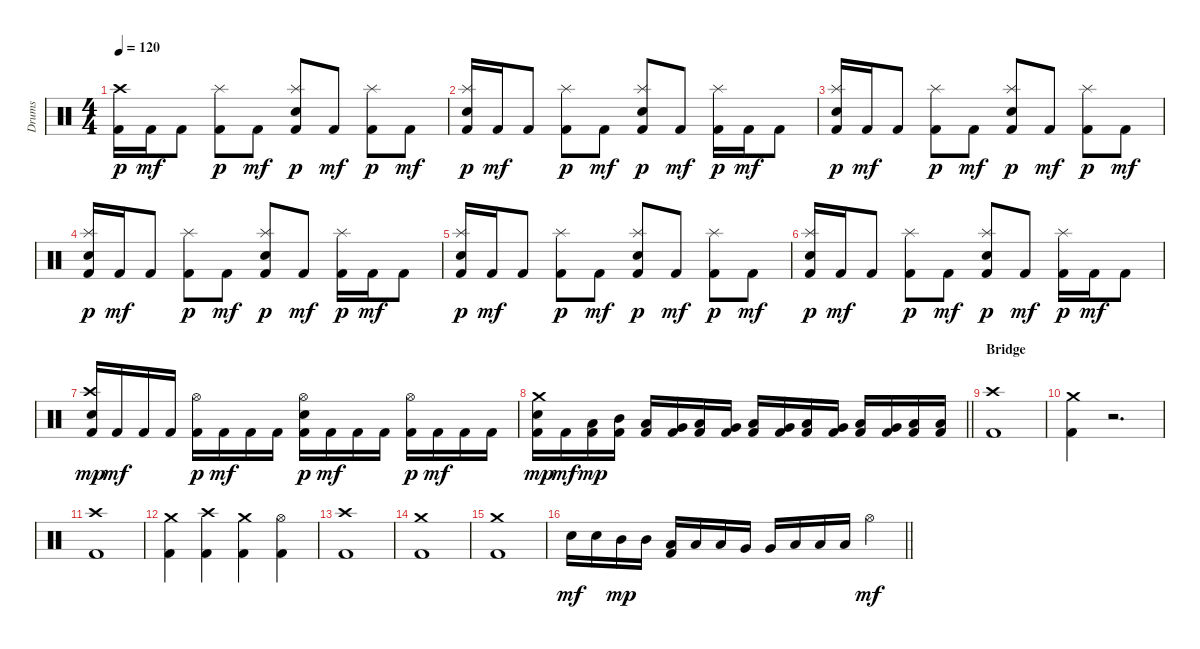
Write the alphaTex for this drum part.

\track ("Drums" "Drums") {instrument percussion}
\staff {score}
\articulation defaults
\ts (4 4)
\tempo 120
\clef neutral
\ks c
("Kick (hit) 2" "Crash high (hit)").16{dy p} "Kick (hit) 2".16{dy mf} "Kick (hit) 2".8 ("Kick (hit) 2" "Splash (hit)").8{dy p} "Kick (hit) 2".8{dy mf} ("Kick (hit) 2" "Splash (hit)" "Snare (hit) 2").8{dy p} "Kick (hit) 2".8{dy mf} ("Kick (hit) 2" "Splash (hit)").8{dy p} "Kick (hit) 2".8{dy mf} |
("Kick (hit) 2" "Splash (hit)" "Snare (hit) 2").16{dy p} "Kick (hit) 2".16{dy mf} "Kick (hit) 2".8 ("Kick (hit) 2" "Splash (hit)").8{dy p} "Kick (hit) 2".8{dy mf} ("Kick (hit) 2" "Splash (hit)" "Snare (hit) 2").8{dy p} "Kick (hit) 2".8{dy mf} ("Kick (hit) 2" "Splash (hit)").16{dy p} "Kick (hit) 2".16{dy mf} "Kick (hit) 2".8 |
("Kick (hit) 2" "Splash (hit)" "Snare (hit) 2").16{dy p} "Kick (hit) 2".16{dy mf} "Kick (hit) 2".8 ("Kick (hit) 2" "Splash (hit)").8{dy p} "Kick (hit) 2".8{dy mf} ("Kick (hit) 2" "Splash (hit)" "Snare (hit) 2").8{dy p} "Kick (hit) 2".8{dy mf} ("Kick (hit) 2" "Splash (hit)").8{dy p} "Kick (hit) 2".8{dy mf} |
("Kick (hit) 2" "Splash (hit)" "Snare (hit) 2").16{dy p} "Kick (hit) 2".16{dy mf} "Kick (hit) 2".8 ("Kick (hit) 2" "Splash (hit)").8{dy p} "Kick (hit) 2".8{dy mf} ("Kick (hit) 2" "Splash (hit)" "Snare (hit) 2").8{dy p} "Kick (hit) 2".8{dy mf} ("Kick (hit) 2" "Splash (hit)").16{dy p} "Kick (hit) 2".16{dy mf} "Kick (hit) 2".8 |
("Kick (hit) 2" "Splash (hit)" "Snare (hit) 2").16{dy p} "Kick (hit) 2".16{dy mf} "Kick (hit) 2".8 ("Kick (hit) 2" "Splash (hit)").8{dy p} "Kick (hit) 2".8{dy mf} ("Kick (hit) 2" "Splash (hit)" "Snare (hit) 2").8{dy p} "Kick (hit) 2".8{dy mf} ("Kick (hit) 2" "Splash (hit)").8{dy p} "Kick (hit) 2".8{dy mf} |
("Kick (hit) 2" "Splash (hit)" "Snare (hit) 2").16{dy p} "Kick (hit) 2".16{dy mf} "Kick (hit) 2".8 ("Kick (hit) 2" "Splash (hit)").8{dy p} "Kick (hit) 2".8{dy mf} ("Kick (hit) 2" "Splash (hit)" "Snare (hit) 2").8{dy p} "Kick (hit) 2".8{dy mf} ("Kick (hit) 2" "Splash (hit)").16{dy p} "Kick (hit) 2".16{dy mf} "Kick (hit) 2".8 |
("Kick (hit) 2" "Crash high (hit)" "Snare (hit) 2").16{dy mp} "Kick (hit) 2".16{dy mf} "Kick (hit) 2".16 "Kick (hit) 2".16 ("Kick (hit) 2" "Hi-Hat (open)").16{dy p} "Kick (hit) 2".16{dy mf} "Kick (hit) 2".16 "Kick (hit) 2".16 ("Kick (hit) 2" "Hi-Hat (open)" "Snare (hit) 2").16{dy p} "Kick (hit) 2".16{dy mf} "Kick (hit) 2".16 "Kick (hit) 2".16 ("Kick (hit) 2" "Hi-Hat (open)").16{dy p} "Kick (hit) 2".16{dy mf} "Kick (hit) 2".16 "Kick (hit) 2".16 |
\barLineRight lightlight
("Kick (hit) 2" "Crash medium (hit)" "Snare (hit) 2").16{dy mp} "Kick (hit) 2".16{dy mf} ("Kick (hit) 2" "Low Tom (hit)").16{dy mp} ("Kick (hit) 2" "Mid Tom (hit)").16 ("Kick (hit) 2" "Low Tom (hit)").16 ("Kick (hit) 2" "Very Low Tom (hit)").16 ("Kick (hit) 2" "Low Floor Tom (hit)").16 ("Kick (hit) 2" "Very Low Tom (hit)").16 ("Kick (hit) 2" "Low Floor Tom (hit)").16 ("Kick (hit) 2" "Very Low Tom (hit)").16 ("Kick (hit) 2" "Low Tom (hit)").16 ("Kick (hit) 2" "Very Low Tom (hit)").16 ("Kick (hit) 2" "Low Tom (hit)").16 ("Kick (hit) 2" "Very Low Tom (hit)").16 ("Kick (hit) 2" "Low Tom (hit)").16 ("Kick (hit) 2" "Low Floor Tom (hit)").16 |
\section ("" "Bridge")
("Kick (hit) 2" "Crash high (hit)").1 |
("Kick (hit) 2" "Crash medium (hit)").4 r.2{d} |
("Kick (hit) 2" "Crash high (hit)").1 |
("Kick (hit) 2" "Crash medium (hit)").4 ("Kick (hit) 2" "Crash high (hit)").4 ("Kick (hit) 2" "Crash medium (hit)").4 ("Kick (hit) 2" "Hi-Hat (open)").4 |
("Kick (hit) 2" "Crash high (hit)").1 |
("Kick (hit) 2" "Crash medium (hit)").1 |
("Kick (hit) 2" "Crash medium (hit)").1 |
\barLineRight lightlight "Snare (hit) 2".16{dy mf} "Snare (hit) 2".16 "Mid Tom (hit)".16{dy mp} "Mid Tom (hit)".16
("Kick (hit) 2" "Low Tom (hit)").16 "Low Tom (hit)".16 "Low Tom (hit)".16 "Very Low Tom (hit)".16 "Very Low Tom (hit)".16 "Low Floor Tom (hit)".16 "Low Floor Tom (hit)".16 "Low Floor Tom (hit)".16 "Hi-Hat (open)".4{dy mf}
